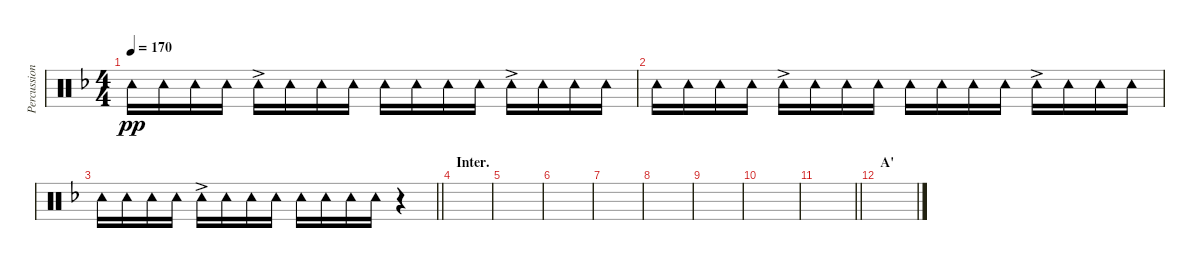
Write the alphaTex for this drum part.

\track ("Percussion (Tainaka Ritsu)" "Percussion") {instrument percussion}
\staff {score}
\articulation defaults
\ts (4 4)
\tempo 170
\clef neutral
\ks f "Tambourine (hit)".16{dy pp} "Tambourine (hit)".16 "Tambourine (hit)".16 "Tambourine (hit)".16 "Tambourine (hit)"{ac}.16 "Tambourine (hit)".16 "Tambourine (hit)".16 "Tambourine (hit)".16 "Tambourine (hit)".16 "Tambourine (hit)".16 "Tambourine (hit)".16 "Tambourine (hit)".16 "Tambourine (hit)"{ac}.16 "Tambourine (hit)".16 "Tambourine (hit)".16 "Tambourine (hit)".16
|
"Tambourine (hit)".16 "Tambourine (hit)".16 "Tambourine (hit)".16 "Tambourine (hit)".16 "Tambourine (hit)"{ac}.16 "Tambourine (hit)".16 "Tambourine (hit)".16 "Tambourine (hit)".16 "Tambourine (hit)".16 "Tambourine (hit)".16 "Tambourine (hit)".16 "Tambourine (hit)".16 "Tambourine (hit)"{ac}.16 "Tambourine (hit)".16 "Tambourine (hit)".16 "Tambourine (hit)".16 |
\barLineRight lightlight "Tambourine (hit)".16 "Tambourine (hit)".16 "Tambourine (hit)".16 "Tambourine (hit)".16 "Tambourine (hit)"{ac}.16 "Tambourine (hit)".16 "Tambourine (hit)".16 "Tambourine (hit)".16 "Tambourine (hit)".16 "Tambourine (hit)".16 "Tambourine (hit)".16 "Tambourine (hit)".16
r.4 |
\section ("" "Inter.")
|
|
|
|
|
|
|
\barLineRight lightlight
|
\section ("" "A'")
